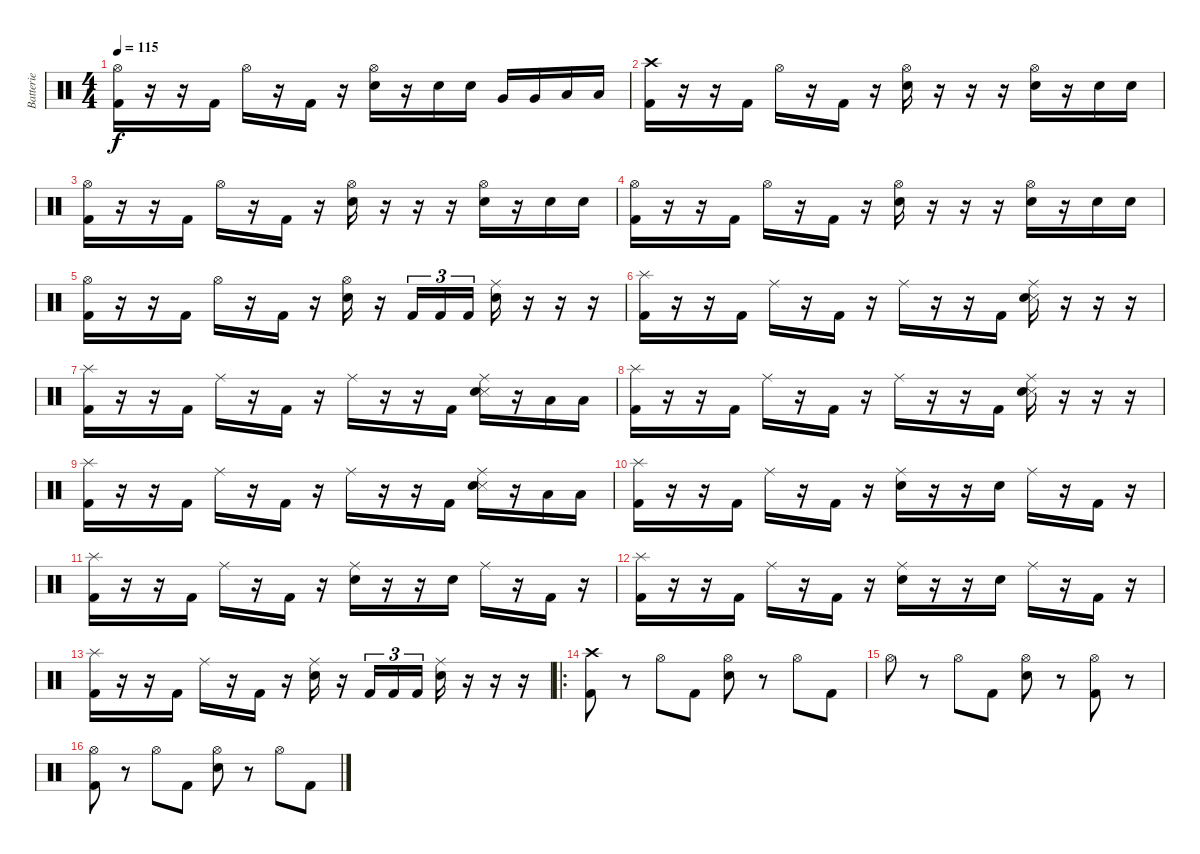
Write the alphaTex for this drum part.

\track ("Batterie" "Batterie") {instrument percussion}
\staff {score}
\articulation defaults
\ts (4 4)
\tempo 115
\clef neutral
\ks c
("Hi-Hat (open)" "Kick (hit) 2").16{dy f} r.16 r.16 "Kick (hit) 2".16 "Hi-Hat (open)".16 r.16 "Kick (hit) 2".16 r.16 ("Hi-Hat (open)" "Electric Snare (hit)").16 r.16 "Electric Snare (hit)".16 "Electric Snare (hit)".16 "Very Low Tom (hit)".16 "Very Low Tom (hit)".16 "Low Floor Tom (hit)".16 "Low Floor Tom (hit)".16 |
("Crash high (hit)" "Kick (hit) 2").16 r.16 r.16 "Kick (hit) 2".16 "Hi-Hat (open)".16 r.16 "Kick (hit) 2".16 r.16 ("Hi-Hat (open)" "Electric Snare (hit)").16 r.16 r.16 r.16 ("Hi-Hat (open)" "Electric Snare (hit)").16 r.16 "Electric Snare (hit)".16 "Electric Snare (hit)".16 |
("Hi-Hat (open)" "Kick (hit) 2").16 r.16 r.16 "Kick (hit) 2".16 "Hi-Hat (open)".16 r.16 "Kick (hit) 2".16 r.16 ("Hi-Hat (open)" "Electric Snare (hit)").16 r.16 r.16 r.16 ("Hi-Hat (open)" "Electric Snare (hit)").16 r.16 "Electric Snare (hit)".16 "Electric Snare (hit)".16 |
("Hi-Hat (open)" "Kick (hit) 2").16 r.16 r.16 "Kick (hit) 2".16 "Hi-Hat (open)".16 r.16 "Kick (hit) 2".16 r.16 ("Hi-Hat (open)" "Electric Snare (hit)").16 r.16 r.16 r.16 ("Hi-Hat (open)" "Electric Snare (hit)").16 r.16 "Electric Snare (hit)".16 "Electric Snare (hit)".16 |
("Hi-Hat (open)" "Kick (hit) 2").16 r.16 r.16 "Kick (hit) 2".16 "Hi-Hat (open)".16 r.16 "Kick (hit) 2".16 r.16 ("Hi-Hat (open)" "Electric Snare (hit)").16 r.16 "Kick (hit) 2".16{tu (3 2)} "Kick (hit) 2".16{tu (3 2)} "Kick (hit) 2".16{tu (3 2)} ("Ride (middle)" "Electric Snare (hit)").16 r.16 r.16 r.16 |
("Splash (hit)" "Kick (hit) 2").16 r.16 r.16 "Kick (hit) 2".16 "Ride (middle)".16 r.16 "Kick (hit) 2".16 r.16 "Ride (middle)".16 r.16 r.16 "Kick (hit) 2".16 ("Ride (middle)" "Snare (side stick) 3" "Electric Snare (hit)").16 r.16 r.16 r.16 |
("Splash (hit)" "Kick (hit) 2").16 r.16 r.16 "Kick (hit) 2".16 "Ride (middle)".16 r.16 "Kick (hit) 2".16 r.16 "Ride (middle)".16 r.16 r.16 "Kick (hit) 2".16 ("Ride (middle)" "Snare (side stick) 3" "Electric Snare (hit)").16 r.16 "Low Floor Tom (hit)".16 "Low Floor Tom (hit)".16 |
("Splash (hit)" "Kick (hit) 2").16 r.16 r.16 "Kick (hit) 2".16 "Ride (middle)".16 r.16 "Kick (hit) 2".16 r.16 "Ride (middle)".16 r.16 r.16 "Kick (hit) 2".16 ("Ride (middle)" "Snare (side stick) 3" "Electric Snare (hit)").16 r.16 r.16 r.16 |
("Splash (hit)" "Kick (hit) 2").16 r.16 r.16 "Kick (hit) 2".16 "Ride (middle)".16 r.16 "Kick (hit) 2".16 r.16 "Ride (middle)".16 r.16 r.16 "Kick (hit) 2".16 ("Ride (middle)" "Snare (side stick) 3" "Electric Snare (hit)").16 r.16 "Low Floor Tom (hit)".16 "Low Floor Tom (hit)".16 |
("Splash (hit)" "Kick (hit) 2").16 r.16 r.16 "Kick (hit) 2".16 "Ride (middle)".16 r.16 "Kick (hit) 2".16 r.16 ("Ride (middle)" "Electric Snare (hit)").16 r.16 r.16 "Electric Snare (hit)".16 "Ride (middle)".16 r.16 "Kick (hit) 2".16 r.16 |
("Splash (hit)" "Kick (hit) 2").16 r.16 r.16 "Kick (hit) 2".16 "Ride (middle)".16 r.16 "Kick (hit) 2".16 r.16 ("Ride (middle)" "Electric Snare (hit)").16 r.16 r.16 "Electric Snare (hit)".16 "Ride (middle)".16 r.16 "Kick (hit) 2".16 r.16 |
("Splash (hit)" "Kick (hit) 2").16 r.16 r.16 "Kick (hit) 2".16 "Ride (middle)".16 r.16 "Kick (hit) 2".16 r.16 ("Ride (middle)" "Electric Snare (hit)").16 r.16 r.16 "Electric Snare (hit)".16 "Ride (middle)".16 r.16 "Kick (hit) 2".16 r.16 |
("Splash (hit)" "Kick (hit) 2").16 r.16 r.16 "Kick (hit) 2".16 "Ride (middle)".16 r.16 "Kick (hit) 2".16 r.16 ("Ride (middle)" "Electric Snare (hit)").16 r.16 "Kick (hit) 2".16{tu (3 2)} "Kick (hit) 2".16{tu (3 2)} "Kick (hit) 2".16{tu (3 2)} ("Ride (middle)" "Electric Snare (hit)").16 r.16 r.16 r.16 |
\ro
("Crash high (hit)" "Kick (hit) 2").8 r.8 "Hi-Hat (open)".8 "Kick (hit) 2".8 ("Hi-Hat (open)" "Electric Snare (hit)").8 r.8 "Hi-Hat (open)".8 "Kick (hit) 2".8 |
"Hi-Hat (open)".8 r.8 "Hi-Hat (open)".8 "Kick (hit) 2".8 ("Hi-Hat (open)" "Electric Snare (hit)").8 r.8 ("Hi-Hat (open)" "Kick (hit) 2").8 r.8 |
("Hi-Hat (open)" "Kick (hit) 2").8 r.8 "Hi-Hat (open)".8 "Kick (hit) 2".8 ("Hi-Hat (open)" "Electric Snare (hit)").8 r.8 "Hi-Hat (open)".8 "Kick (hit) 2".8
